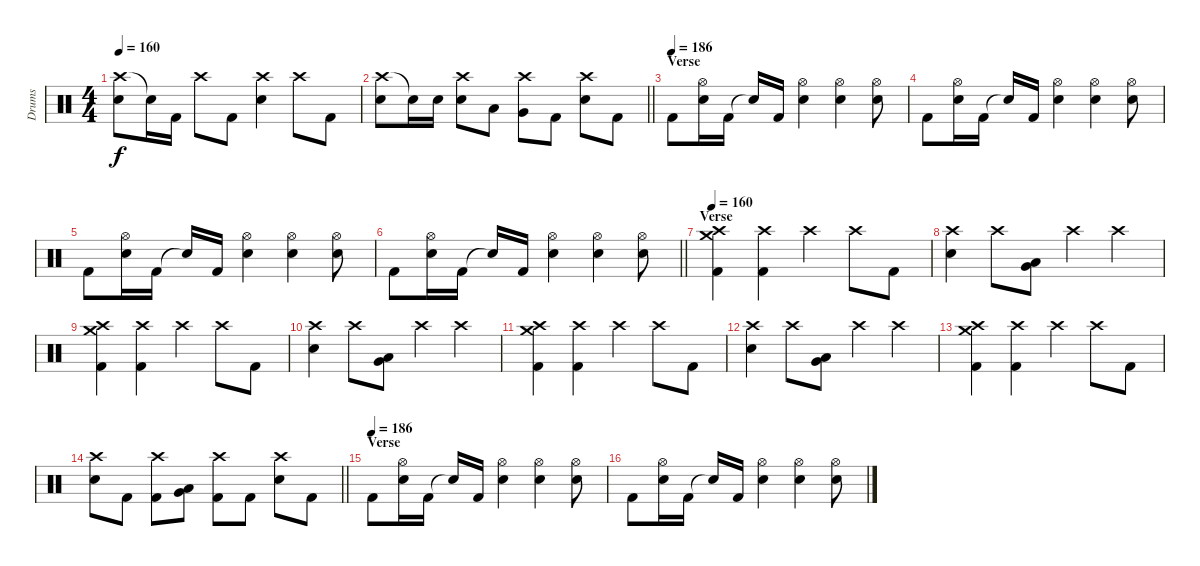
\track ("Drums" "Drums") {instrument percussion}
\staff {score}
\articulation defaults
\ts (4 4)
\tempo 160
\clef neutral
\ks c
("Crash high (hit)" "Electric Snare (hit)").8{dy f} "Electric Snare (hit)"{t}.16 "Kick (hit) 2".16 "Crash high (hit)".8 "Kick (hit) 2".8 ("Crash high (hit)" "Electric Snare (hit)").4 "Crash high (hit)".8 "Kick (hit) 2".8 |
\barLineRight lightlight
("Crash high (hit)" "Electric Snare (hit)").8 "Electric Snare (hit)"{t}.16 "Electric Snare (hit)".16 ("Crash high (hit)" "Electric Snare (hit)").8 "Low Tom (hit)".8 ("Crash high (hit)" "Very Low Tom (hit)").8 "Kick (hit) 2".8 ("Crash high (hit)" "Electric Snare (hit)").8 "Kick (hit) 2".8 |
\section ("" "Verse")
\tempo (186)
"Kick (hit) 2".8 ("Hi-Hat (open)" "Electric Snare (hit)").16 "Kick (hit) 2".16 "Snare (hit)"{t}.16 "Kick (hit) 2".16 ("Hi-Hat (open)" "Electric Snare (hit)").4 ("Hi-Hat (open)" "Electric Snare (hit)").4 ("Hi-Hat (open)" "Electric Snare (hit)").8 |
"Kick (hit) 2".8 ("Hi-Hat (open)" "Electric Snare (hit)").16 "Kick (hit) 2".16 "Snare (hit)"{t}.16 "Kick (hit) 2".16 ("Hi-Hat (open)" "Electric Snare (hit)").4 ("Hi-Hat (open)" "Electric Snare (hit)").4 ("Hi-Hat (open)" "Electric Snare (hit)").8 |
"Kick (hit) 2".8 ("Hi-Hat (open)" "Electric Snare (hit)").16 "Kick (hit) 2".16 "Snare (hit)"{t}.16 "Kick (hit) 2".16 ("Hi-Hat (open)" "Electric Snare (hit)").4 ("Hi-Hat (open)" "Electric Snare (hit)").4 ("Hi-Hat (open)" "Electric Snare (hit)").8 |
\barLineRight lightlight "Kick (hit) 2".8
("Hi-Hat (open)" "Electric Snare (hit)").16 "Kick (hit) 2".16 "Snare (hit)"{t}.16 "Kick (hit) 2".16 ("Hi-Hat (open)" "Electric Snare (hit)").4 ("Hi-Hat (open)" "Electric Snare (hit)").4 ("Hi-Hat (open)" "Electric Snare (hit)").8 |
\section ("" "Verse")
\tempo 160
("Crash medium (hit)" "Crash high (hit)" "Kick (hit) 2").4 ("Crash high (hit)" "Kick (hit) 2").4 "Crash high (hit)".4 "Crash high (hit)".8 "Kick (hit) 2".8 |
("Crash high (hit)" "Electric Snare (hit)").4 "Crash high (hit)".8 ("Very Low Tom (hit)" "Low Floor Tom (hit)").8 "Crash high (hit)".4 "Crash high (hit)".4 |
("Crash medium (hit)" "Crash high (hit)" "Kick (hit) 2").4 ("Crash high (hit)" "Kick (hit) 2").4 "Crash high (hit)".4 "Crash high (hit)".8 "Kick (hit) 2".8 |
("Crash high (hit)" "Electric Snare (hit)").4 "Crash high (hit)".8 ("Very Low Tom (hit)" "Low Floor Tom (hit)").8 "Crash high (hit)".4 "Crash high (hit)".4 |
("Crash medium (hit)" "Crash high (hit)" "Kick (hit) 2").4 ("Crash high (hit)" "Kick (hit) 2").4 "Crash high (hit)".4 "Crash high (hit)".8 "Kick (hit) 2".8 |
("Crash high (hit)" "Electric Snare (hit)").4 "Crash high (hit)".8 ("Very Low Tom (hit)" "Low Floor Tom (hit)").8 "Crash high (hit)".4 "Crash high (hit)".4 |
("Crash medium (hit)" "Crash high (hit)" "Kick (hit) 2").4 ("Crash high (hit)" "Kick (hit) 2").4 "Crash high (hit)".4 "Crash high (hit)".8 "Kick (hit) 2".8 |
\barLineRight lightlight
("Crash high (hit)" "Electric Snare (hit)").8 "Kick (hit) 2".8 ("Crash high (hit)" "Kick (hit) 2").8 ("Very Low Tom (hit)" "Low Floor Tom (hit)").8 ("Crash high (hit)" "Kick (hit) 2").8 "Kick (hit) 2".8 ("Crash high (hit)" "Electric Snare (hit)").8 "Kick (hit) 2".8 |
\section ("" "Verse")
\tempo (186)
"Kick (hit) 2".8 ("Hi-Hat (open)" "Electric Snare (hit)").16 "Kick (hit) 2".16 "Snare (hit)"{t}.16 "Kick (hit) 2".16 ("Hi-Hat (open)" "Electric Snare (hit)").4 ("Hi-Hat (open)" "Electric Snare (hit)").4 ("Hi-Hat (open)" "Electric Snare (hit)").8 |
"Kick (hit) 2".8 ("Hi-Hat (open)" "Electric Snare (hit)").16 "Kick (hit) 2".16 "Snare (hit)"{t}.16 "Kick (hit) 2".16 ("Hi-Hat (open)" "Electric Snare (hit)").4 ("Hi-Hat (open)" "Electric Snare (hit)").4 ("Hi-Hat (open)" "Electric Snare (hit)").8
